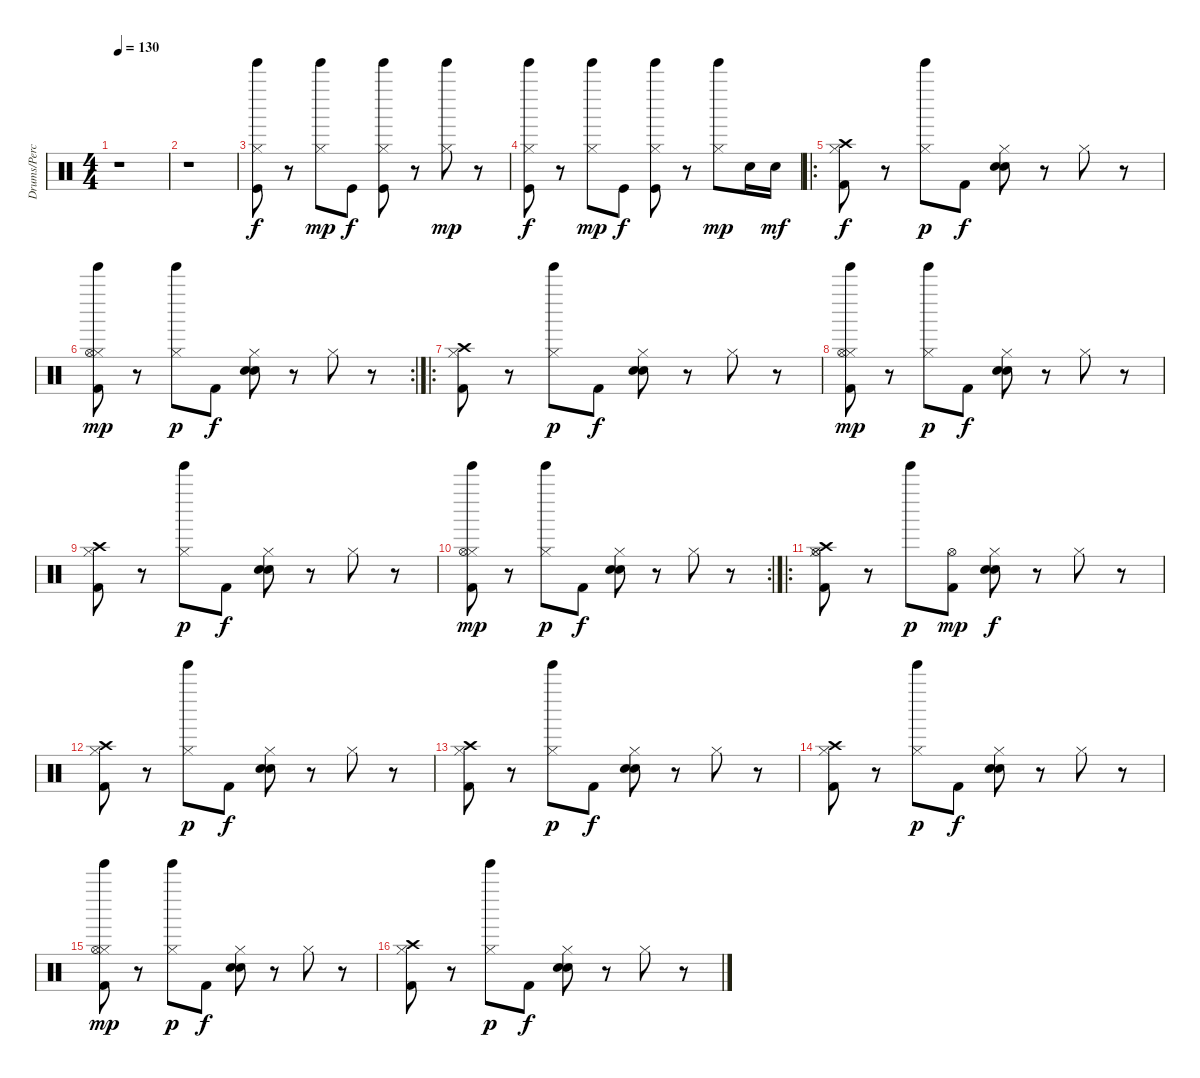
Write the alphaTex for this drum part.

\track ("Drums/Percussion" "Drums/Perc") {instrument percussion}
\staff {score}
\articulation defaults
\ts (4 4)
\tempo 130
\clef neutral
\ks c
r.1{dy f} |
r.1 |
("Tinkle Bell (hit)" "Hi-Hat (closed)" "Kick (hit)").8 r.8 ("Tinkle Bell (hit)" "Hi-Hat (closed)").8{dy mp} "Kick (hit)".8{dy f} ("Tinkle Bell (hit)" "Hi-Hat (closed)" "Kick (hit)").8 r.8 ("Tinkle Bell (hit)" "Hi-Hat (closed)").8{dy mp} r.8 |
("Tinkle Bell (hit)" "Hi-Hat (closed)" "Kick (hit)").8{dy f} r.8 ("Tinkle Bell (hit)" "Hi-Hat (closed)").8{dy mp} "Kick (hit)".8{dy f} ("Tinkle Bell (hit)" "Hi-Hat (closed)" "Kick (hit)").8 r.8 ("Tinkle Bell (hit)" "Hi-Hat (closed)").8{dy mp} "Snare (hit) 2".16 "Snare (hit) 2".16{dy mf} |
\ro
("Hi-Hat (closed)" "Crash high (hit)" "Kick (hit) 2").8{dy f} r.8 ("Hi-Hat (closed)" "Tinkle Bell (hit)").8{dy p} "Kick (hit) 2".8{dy f} ("Hi-Hat (closed)" "Snare (hit) 2" "Electric Snare (hit)").8 r.8 "Hi-Hat (closed)".8 r.8 |
\rc 2
("Hi-Hat (closed)" "Hi-Hat (open)" "Tinkle Bell (hit)" "Kick (hit) 2").8{dy mp} r.8 ("Hi-Hat (closed)" "Tinkle Bell (hit)").8{dy p} "Kick (hit) 2".8{dy f} ("Hi-Hat (closed)" "Snare (hit) 2" "Electric Snare (hit)").8 r.8 "Hi-Hat (closed)".8 r.8 |
\ro
("Hi-Hat (closed)" "Crash high (hit)" "Kick (hit) 2").8 r.8 ("Hi-Hat (closed)" "Tinkle Bell (hit)").8{dy p} "Kick (hit) 2".8{dy f} ("Hi-Hat (closed)" "Snare (hit) 2" "Electric Snare (hit)").8 r.8 "Hi-Hat (closed)".8 r.8 |
("Hi-Hat (closed)" "Hi-Hat (open)" "Tinkle Bell (hit)" "Kick (hit) 2").8{dy mp} r.8 ("Hi-Hat (closed)" "Tinkle Bell (hit)").8{dy p} "Kick (hit) 2".8{dy f} ("Hi-Hat (closed)" "Snare (hit) 2" "Electric Snare (hit)").8 r.8 "Hi-Hat (closed)".8 r.8 |
("Hi-Hat (closed)" "Crash high (hit)" "Kick (hit) 2").8 r.8 ("Hi-Hat (closed)" "Tinkle Bell (hit)").8{dy p} "Kick (hit) 2".8{dy f} ("Hi-Hat (closed)" "Snare (hit) 2" "Electric Snare (hit)").8 r.8 "Hi-Hat (closed)".8 r.8 |
\rc 2
("Hi-Hat (closed)" "Hi-Hat (open)" "Tinkle Bell (hit)" "Kick (hit) 2").8{dy mp} r.8 ("Hi-Hat (closed)" "Tinkle Bell (hit)").8{dy p} "Kick (hit) 2".8{dy f} ("Hi-Hat (closed)" "Snare (hit) 2" "Electric Snare (hit)").8 r.8 "Hi-Hat (closed)".8 r.8 |
\ro
("Hi-Hat (open)" "Hi-Hat (closed)" "Crash high (hit)" "Kick (hit) 2").8 r.8 "Tinkle Bell (hit)".8{dy p} ("Hi-Hat (open)" "Kick (hit) 2").8{dy mp} ("Hi-Hat (closed)" "Snare (hit) 2" "Electric Snare (hit)").8{dy f} r.8 "Hi-Hat (closed)".8 r.8 |
("Hi-Hat (closed)" "Crash high (hit)" "Kick (hit) 2").8 r.8 ("Hi-Hat (closed)" "Tinkle Bell (hit)").8{dy p} "Kick (hit) 2".8{dy f} ("Hi-Hat (closed)" "Snare (hit) 2" "Electric Snare (hit)").8 r.8 "Hi-Hat (closed)".8 r.8 |
("Hi-Hat (closed)" "Crash high (hit)" "Kick (hit) 2").8 r.8 ("Hi-Hat (closed)" "Tinkle Bell (hit)").8{dy p} "Kick (hit) 2".8{dy f} ("Hi-Hat (closed)" "Snare (hit) 2" "Electric Snare (hit)").8 r.8 "Hi-Hat (closed)".8 r.8 |
("Hi-Hat (closed)" "Crash high (hit)" "Kick (hit) 2").8 r.8 ("Hi-Hat (closed)" "Tinkle Bell (hit)").8{dy p} "Kick (hit) 2".8{dy f} ("Hi-Hat (closed)" "Snare (hit) 2" "Electric Snare (hit)").8 r.8 "Hi-Hat (closed)".8 r.8 |
("Hi-Hat (closed)" "Hi-Hat (open)" "Tinkle Bell (hit)" "Kick (hit) 2").8{dy mp} r.8 ("Hi-Hat (closed)" "Tinkle Bell (hit)").8{dy p} "Kick (hit) 2".8{dy f} ("Hi-Hat (closed)" "Snare (hit) 2" "Electric Snare (hit)").8 r.8 "Hi-Hat (closed)".8 r.8 |
("Hi-Hat (closed)" "Crash high (hit)" "Kick (hit) 2").8 r.8 ("Hi-Hat (closed)" "Tinkle Bell (hit)").8{dy p} "Kick (hit) 2".8{dy f} ("Hi-Hat (closed)" "Snare (hit) 2" "Electric Snare (hit)").8 r.8 "Hi-Hat (closed)".8 r.8
